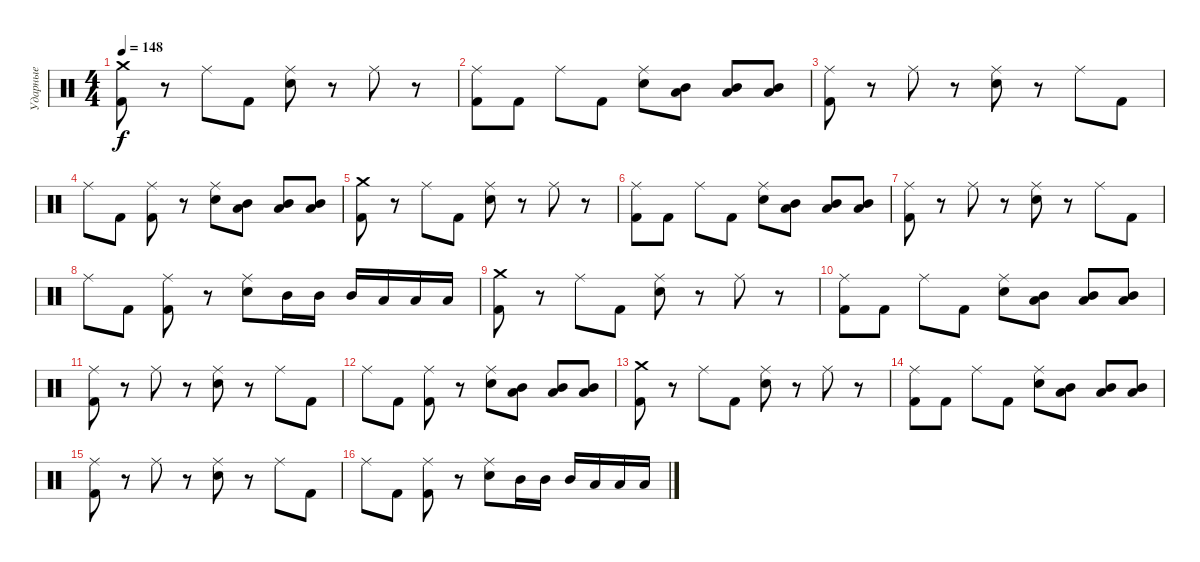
\track ("Ударные" "Ударные") {instrument percussion}
\staff {score}
\articulation defaults
\ts (4 4)
\tempo 148
\clef neutral
\ks c
("Kick (hit) 2" "Crash medium (hit)").8{dy f} r.8 "Ride (middle)".8 "Kick (hit) 2".8 ("Electric Snare (hit)" "Ride (middle)").8 r.8 "Ride (middle)".8 r.8 |
("Kick (hit) 2" "Ride (middle)").8 "Kick (hit) 2".8 "Ride (middle)".8 "Kick (hit) 2".8 ("Electric Snare (hit)" "Ride (middle)").8 ("Mid Tom (hit)" "Low Tom (hit)").8 ("Mid Tom (hit)" "Low Tom (hit)").8 ("Mid Tom (hit)" "Low Tom (hit)").8 |
("Kick (hit) 2" "Ride (middle)").8 r.8 "Ride (middle)".8 r.8 ("Electric Snare (hit)" "Ride (middle)").8 r.8 "Ride (middle)".8 "Kick (hit) 2".8 |
"Ride (middle)".8 "Kick (hit) 2".8 ("Kick (hit) 2" "Ride (middle)").8 r.8 ("Electric Snare (hit)" "Ride (middle)").8 ("Mid Tom (hit)" "Low Tom (hit)").8 ("Mid Tom (hit)" "Low Tom (hit)").8 ("Mid Tom (hit)" "Low Tom (hit)").8 |
("Kick (hit) 2" "Crash medium (hit)").8 r.8 "Ride (middle)".8 "Kick (hit) 2".8 ("Electric Snare (hit)" "Ride (middle)").8 r.8 "Ride (middle)".8 r.8 |
("Kick (hit) 2" "Ride (middle)").8 "Kick (hit) 2".8 "Ride (middle)".8 "Kick (hit) 2".8 ("Electric Snare (hit)" "Ride (middle)").8 ("Mid Tom (hit)" "Low Tom (hit)").8 ("Mid Tom (hit)" "Low Tom (hit)").8 ("Mid Tom (hit)" "Low Tom (hit)").8 |
("Kick (hit) 2" "Ride (middle)").8 r.8 "Ride (middle)".8 r.8 ("Electric Snare (hit)" "Ride (middle)").8 r.8 "Ride (middle)".8 "Kick (hit) 2".8 |
"Ride (middle)".8 "Kick (hit) 2".8 ("Kick (hit) 2" "Ride (middle)").8 r.8 ("Electric Snare (hit)" "Ride (middle)").8 "Mid Tom (hit)".16 "Mid Tom (hit)".16 "Mid Tom (hit)".16 "Low Tom (hit)".16 "Low Tom (hit)".16 "Low Floor Tom (hit)".16 |
("Kick (hit) 2" "Crash medium (hit)").8 r.8 "Ride (middle)".8 "Kick (hit) 2".8 ("Electric Snare (hit)" "Ride (middle)").8 r.8 "Ride (middle)".8 r.8 |
("Kick (hit) 2" "Ride (middle)").8 "Kick (hit) 2".8 "Ride (middle)".8 "Kick (hit) 2".8 ("Electric Snare (hit)" "Ride (middle)").8 ("Mid Tom (hit)" "Low Tom (hit)").8 ("Mid Tom (hit)" "Low Tom (hit)").8 ("Mid Tom (hit)" "Low Tom (hit)").8 |
("Kick (hit) 2" "Ride (middle)").8 r.8 "Ride (middle)".8 r.8 ("Electric Snare (hit)" "Ride (middle)").8 r.8 "Ride (middle)".8 "Kick (hit) 2".8 |
"Ride (middle)".8 "Kick (hit) 2".8 ("Kick (hit) 2" "Ride (middle)").8 r.8 ("Electric Snare (hit)" "Ride (middle)").8 ("Mid Tom (hit)" "Low Tom (hit)").8 ("Mid Tom (hit)" "Low Tom (hit)").8 ("Mid Tom (hit)" "Low Tom (hit)").8 |
("Kick (hit) 2" "Crash medium (hit)").8 r.8 "Ride (middle)".8 "Kick (hit) 2".8 ("Electric Snare (hit)" "Ride (middle)").8 r.8 "Ride (middle)".8 r.8 |
("Kick (hit) 2" "Ride (middle)").8 "Kick (hit) 2".8 "Ride (middle)".8 "Kick (hit) 2".8 ("Electric Snare (hit)" "Ride (middle)").8 ("Mid Tom (hit)" "Low Tom (hit)").8 ("Mid Tom (hit)" "Low Tom (hit)").8 ("Mid Tom (hit)" "Low Tom (hit)").8 |
("Kick (hit) 2" "Ride (middle)").8 r.8 "Ride (middle)".8 r.8 ("Electric Snare (hit)" "Ride (middle)").8 r.8 "Ride (middle)".8 "Kick (hit) 2".8 |
"Ride (middle)".8 "Kick (hit) 2".8 ("Kick (hit) 2" "Ride (middle)").8 r.8 ("Electric Snare (hit)" "Ride (middle)").8 "Mid Tom (hit)".16 "Mid Tom (hit)".16 "Mid Tom (hit)".16 "Low Tom (hit)".16 "Low Tom (hit)".16 "Low Floor Tom (hit)".16
